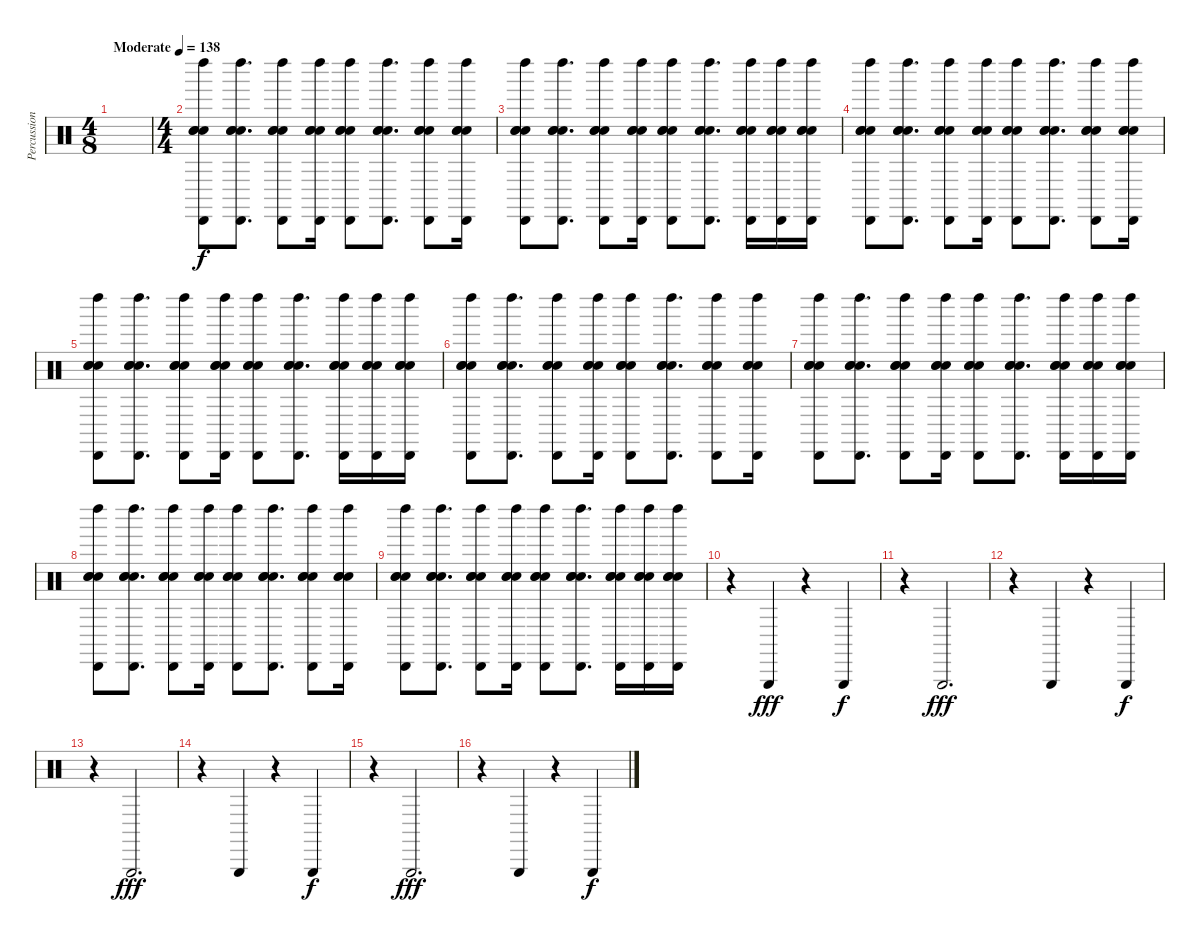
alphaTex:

\track ("Percussion" "Percussion") {instrument percussion}
\staff {score}
\articulation defaults
\ts (4 8)
\tempo (138 "Moderate")
\clef neutral
\ks c
|
\ts (4 4)
("Snare (hit)" "Snare (hit)" "Snare (hit)" "Cabasa (hit)" "Left Maraca (hit)").8 ("Snare (hit)" "Snare (hit)" "Snare (hit)" "Cabasa (hit)" "Left Maraca (hit)").8{d} ("Snare (hit)" "Snare (hit)" "Snare (hit)" "Cabasa (hit)" "Left Maraca (hit)").8 ("Snare (hit)" "Snare (hit)" "Snare (hit)" "Cabasa (hit)" "Left Maraca (hit)").16 ("Snare (hit)" "Snare (hit)" "Snare (hit)" "Cabasa (hit)" "Left Maraca (hit)").8 ("Snare (hit)" "Snare (hit)" "Snare (hit)" "Cabasa (hit)" "Left Maraca (hit)").8{d} ("Snare (hit)" "Snare (hit)" "Snare (hit)" "Cabasa (hit)" "Left Maraca (hit)").8 ("Snare (hit)" "Snare (hit)" "Snare (hit)" "Cabasa (hit)" "Left Maraca (hit)").16 |
("Snare (hit)" "Snare (hit)" "Snare (hit)" "Cabasa (hit)" "Left Maraca (hit)").8 ("Snare (hit)" "Snare (hit)" "Snare (hit)" "Cabasa (hit)" "Left Maraca (hit)").8{d} ("Snare (hit)" "Snare (hit)" "Snare (hit)" "Cabasa (hit)" "Left Maraca (hit)").8 ("Snare (hit)" "Snare (hit)" "Snare (hit)" "Cabasa (hit)" "Left Maraca (hit)").16 ("Snare (hit)" "Snare (hit)" "Snare (hit)" "Cabasa (hit)" "Left Maraca (hit)").8 ("Snare (hit)" "Snare (hit)" "Snare (hit)" "Cabasa (hit)" "Left Maraca (hit)").8{d} ("Snare (hit)" "Snare (hit)" "Snare (hit)" "Cabasa (hit)" "Left Maraca (hit)").16 ("Snare (hit)" "Snare (hit)" "Snare (hit)" "Cabasa (hit)" "Left Maraca (hit)").16 ("Snare (hit)" "Snare (hit)" "Snare (hit)" "Cabasa (hit)" "Left Maraca (hit)").16 |
("Snare (hit)" "Snare (hit)" "Snare (hit)" "Cabasa (hit)" "Left Maraca (hit)").8 ("Snare (hit)" "Snare (hit)" "Snare (hit)" "Cabasa (hit)" "Left Maraca (hit)").8{d} ("Snare (hit)" "Snare (hit)" "Snare (hit)" "Cabasa (hit)" "Left Maraca (hit)").8 ("Snare (hit)" "Snare (hit)" "Snare (hit)" "Cabasa (hit)" "Left Maraca (hit)").16 ("Snare (hit)" "Snare (hit)" "Snare (hit)" "Cabasa (hit)" "Left Maraca (hit)").8 ("Snare (hit)" "Snare (hit)" "Snare (hit)" "Cabasa (hit)" "Left Maraca (hit)").8{d} ("Snare (hit)" "Snare (hit)" "Snare (hit)" "Cabasa (hit)" "Left Maraca (hit)").8 ("Snare (hit)" "Snare (hit)" "Snare (hit)" "Cabasa (hit)" "Left Maraca (hit)").16 |
("Snare (hit)" "Snare (hit)" "Snare (hit)" "Cabasa (hit)" "Left Maraca (hit)").8 ("Snare (hit)" "Snare (hit)" "Snare (hit)" "Cabasa (hit)" "Left Maraca (hit)").8{d} ("Snare (hit)" "Snare (hit)" "Snare (hit)" "Cabasa (hit)" "Left Maraca (hit)").8 ("Snare (hit)" "Snare (hit)" "Snare (hit)" "Cabasa (hit)" "Left Maraca (hit)").16 ("Snare (hit)" "Snare (hit)" "Snare (hit)" "Cabasa (hit)" "Left Maraca (hit)").8 ("Snare (hit)" "Snare (hit)" "Snare (hit)" "Cabasa (hit)" "Left Maraca (hit)").8{d} ("Snare (hit)" "Snare (hit)" "Snare (hit)" "Cabasa (hit)" "Left Maraca (hit)").16 ("Snare (hit)" "Snare (hit)" "Snare (hit)" "Cabasa (hit)" "Left Maraca (hit)").16 ("Snare (hit)" "Snare (hit)" "Snare (hit)" "Cabasa (hit)" "Left Maraca (hit)").16 |
("Snare (hit)" "Snare (hit)" "Snare (hit)" "Cabasa (hit)" "Left Maraca (hit)").8 ("Snare (hit)" "Snare (hit)" "Snare (hit)" "Cabasa (hit)" "Left Maraca (hit)").8{d} ("Snare (hit)" "Snare (hit)" "Snare (hit)" "Cabasa (hit)" "Left Maraca (hit)").8 ("Snare (hit)" "Snare (hit)" "Snare (hit)" "Cabasa (hit)" "Left Maraca (hit)").16 ("Snare (hit)" "Snare (hit)" "Snare (hit)" "Cabasa (hit)" "Left Maraca (hit)").8 ("Snare (hit)" "Snare (hit)" "Snare (hit)" "Cabasa (hit)" "Left Maraca (hit)").8{d} ("Snare (hit)" "Snare (hit)" "Snare (hit)" "Cabasa (hit)" "Left Maraca (hit)").8 ("Snare (hit)" "Snare (hit)" "Snare (hit)" "Cabasa (hit)" "Left Maraca (hit)").16 |
("Snare (hit)" "Snare (hit)" "Snare (hit)" "Cabasa (hit)" "Left Maraca (hit)").8 ("Snare (hit)" "Snare (hit)" "Snare (hit)" "Cabasa (hit)" "Left Maraca (hit)").8{d} ("Snare (hit)" "Snare (hit)" "Snare (hit)" "Cabasa (hit)" "Left Maraca (hit)").8 ("Snare (hit)" "Snare (hit)" "Snare (hit)" "Cabasa (hit)" "Left Maraca (hit)").16 ("Snare (hit)" "Snare (hit)" "Snare (hit)" "Cabasa (hit)" "Left Maraca (hit)").8 ("Snare (hit)" "Snare (hit)" "Snare (hit)" "Cabasa (hit)" "Left Maraca (hit)").8{d} ("Snare (hit)" "Snare (hit)" "Snare (hit)" "Cabasa (hit)" "Left Maraca (hit)").16 ("Snare (hit)" "Snare (hit)" "Snare (hit)" "Cabasa (hit)" "Left Maraca (hit)").16 ("Snare (hit)" "Snare (hit)" "Snare (hit)" "Cabasa (hit)" "Left Maraca (hit)").16 |
("Snare (hit)" "Snare (hit)" "Snare (hit)" "Cabasa (hit)" "Left Maraca (hit)").8 ("Snare (hit)" "Snare (hit)" "Snare (hit)" "Cabasa (hit)" "Left Maraca (hit)").8{d} ("Snare (hit)" "Snare (hit)" "Snare (hit)" "Cabasa (hit)" "Left Maraca (hit)").8 ("Snare (hit)" "Snare (hit)" "Snare (hit)" "Cabasa (hit)" "Left Maraca (hit)").16 ("Snare (hit)" "Snare (hit)" "Snare (hit)" "Cabasa (hit)" "Left Maraca (hit)").8 ("Snare (hit)" "Snare (hit)" "Snare (hit)" "Cabasa (hit)" "Left Maraca (hit)").8{d} ("Snare (hit)" "Snare (hit)" "Snare (hit)" "Cabasa (hit)" "Left Maraca (hit)").8 ("Snare (hit)" "Snare (hit)" "Snare (hit)" "Cabasa (hit)" "Left Maraca (hit)").16 |
("Snare (hit)" "Snare (hit)" "Snare (hit)" "Cabasa (hit)" "Left Maraca (hit)").8 ("Snare (hit)" "Snare (hit)" "Snare (hit)" "Cabasa (hit)" "Left Maraca (hit)").8{d} ("Snare (hit)" "Snare (hit)" "Snare (hit)" "Cabasa (hit)" "Left Maraca (hit)").8 ("Snare (hit)" "Snare (hit)" "Snare (hit)" "Cabasa (hit)" "Left Maraca (hit)").16 ("Snare (hit)" "Snare (hit)" "Snare (hit)" "Cabasa (hit)" "Left Maraca (hit)").8 ("Snare (hit)" "Snare (hit)" "Snare (hit)" "Cabasa (hit)" "Left Maraca (hit)").8{d} ("Snare (hit)" "Snare (hit)" "Snare (hit)" "Cabasa (hit)" "Left Maraca (hit)").16 ("Snare (hit)" "Snare (hit)" "Snare (hit)" "Cabasa (hit)" "Left Maraca (hit)").16 ("Snare (hit)" "Snare (hit)" "Snare (hit)" "Cabasa (hit)" "Left Maraca (hit)").16 |
r.4 "Triangle (hit)".4{dy fff} r.4 "Triangle (hit)".4{dy f} |
r.4 "Triangle (hit)".2{d dy fff} |
r.4 "Triangle (hit)".4 r.4 "Triangle (hit)".4{dy f} |
r.4 "Triangle (hit)".2{d dy fff} |
r.4 "Triangle (hit)".4 r.4 "Triangle (hit)".4{dy f} |
r.4 "Triangle (hit)".2{d dy fff} |
r.4 "Triangle (hit)".4 r.4 "Triangle (hit)".4{dy f}
